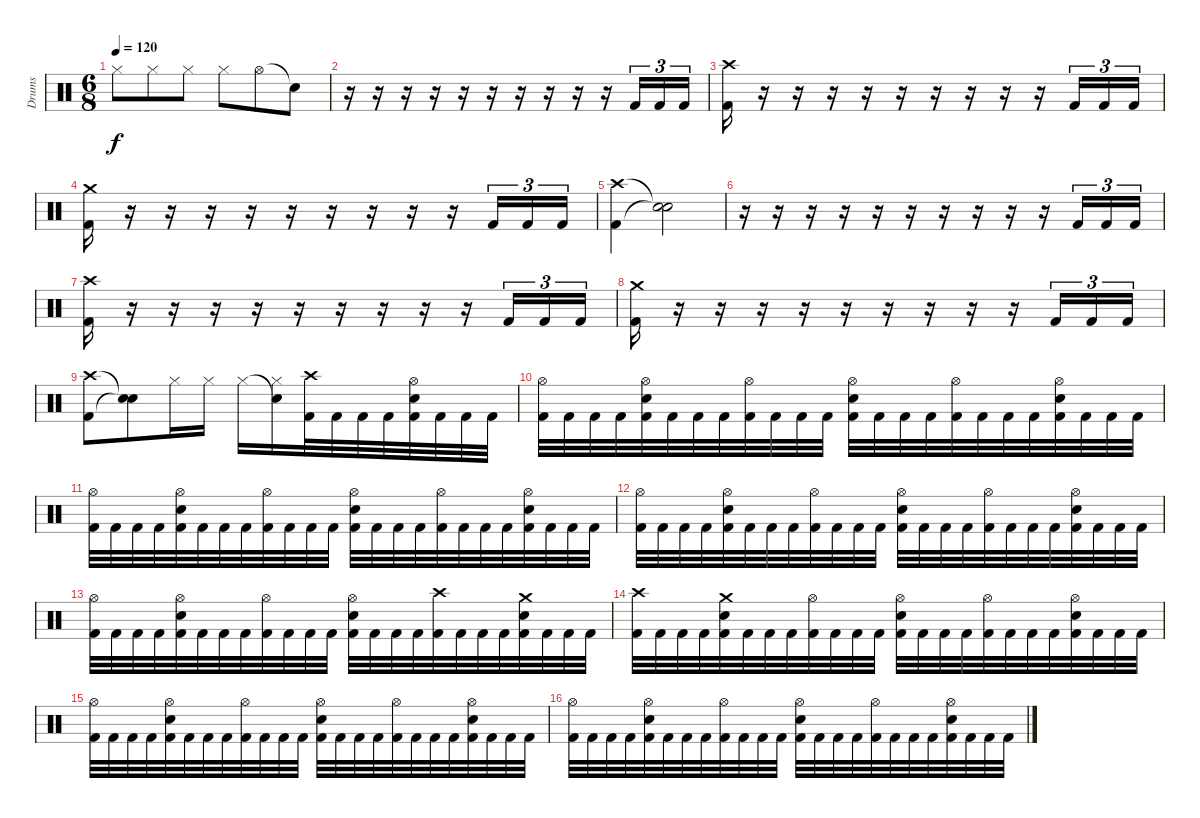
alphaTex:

\track ("Drums" "Drums") {instrument percussion}
\staff {score}
\articulation defaults
\ts (6 8)
\tempo 120
\clef neutral
\ks c "Hi-Hat (closed)".8{dy f} "Hi-Hat (closed)".8 "Hi-Hat (closed)".8 "Hi-Hat (closed)".8 "Hi-Hat (open)".8 "Snare (hit)"{t}.8
|
r.16 r.16 r.16 r.16 r.16 r.16 r.16 r.16 r.16 r.16 "Kick (hit) 2".16{tu (3 2)} "Kick (hit) 2".16{tu (3 2)} "Kick (hit) 2".16{tu (3 2)} |
("Crash high (hit)" "Kick (hit) 2").16 r.16 r.16 r.16 r.16 r.16 r.16 r.16 r.16 r.16 "Kick (hit) 2".16{tu (3 2)} "Kick (hit) 2".16{tu (3 2)} "Kick (hit) 2".16{tu (3 2)} |
("Crash medium (hit)" "Kick (hit) 2").16 r.16 r.16 r.16 r.16 r.16 r.16 r.16 r.16 r.16 "Kick (hit) 2".16{tu (3 2)} "Kick (hit) 2".16{tu (3 2)} "Kick (hit) 2".16{tu (3 2)} |
("Crash high (hit)" "Kick (hit) 2").4 ("Snare (hit)"{t} "Snare (hit)"{t}).2 |
r.16 r.16 r.16 r.16 r.16 r.16 r.16 r.16 r.16 r.16 "Kick (hit) 2".16{tu (3 2)} "Kick (hit) 2".16{tu (3 2)} "Kick (hit) 2".16{tu (3 2)} |
("Crash high (hit)" "Kick (hit) 2").16 r.16 r.16 r.16 r.16 r.16 r.16 r.16 r.16 r.16 "Kick (hit) 2".16{tu (3 2)} "Kick (hit) 2".16{tu (3 2)} "Kick (hit) 2".16{tu (3 2)} |
("Crash medium (hit)" "Kick (hit) 2").16 r.16 r.16 r.16 r.16 r.16 r.16 r.16 r.16 r.16 "Kick (hit) 2".16{tu (3 2)} "Kick (hit) 2".16{tu (3 2)} "Kick (hit) 2".16{tu (3 2)} |
("Crash high (hit)" "Kick (hit) 2").8 ("Snare (hit)"{t} "Snare (hit)"{t}).8 "Hi-Hat (closed)".16 "Hi-Hat (closed)".16 "Hi-Hat (closed)".16 ("Snare (hit)"{t} "Hi-Hat (closed)").16 ("Crash high (hit)" "Kick (hit) 2").32 "Kick (hit) 2".32 "Kick (hit) 2".32 "Kick (hit) 2".32 ("Hi-Hat (open)" "Electric Snare (hit)" "Kick (hit) 2").32 "Kick (hit) 2".32 "Kick (hit) 2".32 "Kick (hit) 2".32 |
("Hi-Hat (open)" "Kick (hit) 2").32 "Kick (hit) 2".32 "Kick (hit) 2".32 "Kick (hit) 2".32 ("Hi-Hat (open)" "Electric Snare (hit)" "Kick (hit) 2").32 "Kick (hit) 2".32 "Kick (hit) 2".32 "Kick (hit) 2".32 ("Hi-Hat (open)" "Kick (hit) 2").32 "Kick (hit) 2".32 "Kick (hit) 2".32 "Kick (hit) 2".32 ("Hi-Hat (open)" "Electric Snare (hit)" "Kick (hit) 2").32 "Kick (hit) 2".32 "Kick (hit) 2".32 "Kick (hit) 2".32 ("Hi-Hat (open)" "Kick (hit) 2").32 "Kick (hit) 2".32 "Kick (hit) 2".32 "Kick (hit) 2".32 ("Hi-Hat (open)" "Electric Snare (hit)" "Kick (hit) 2").32 "Kick (hit) 2".32 "Kick (hit) 2".32 "Kick (hit) 2".32 |
("Hi-Hat (open)" "Kick (hit) 2").32 "Kick (hit) 2".32 "Kick (hit) 2".32 "Kick (hit) 2".32 ("Hi-Hat (open)" "Electric Snare (hit)" "Kick (hit) 2").32 "Kick (hit) 2".32 "Kick (hit) 2".32 "Kick (hit) 2".32 ("Hi-Hat (open)" "Kick (hit) 2").32 "Kick (hit) 2".32 "Kick (hit) 2".32 "Kick (hit) 2".32 ("Hi-Hat (open)" "Electric Snare (hit)" "Kick (hit) 2").32 "Kick (hit) 2".32 "Kick (hit) 2".32 "Kick (hit) 2".32 ("Hi-Hat (open)" "Kick (hit) 2").32 "Kick (hit) 2".32 "Kick (hit) 2".32 "Kick (hit) 2".32 ("Hi-Hat (open)" "Electric Snare (hit)" "Kick (hit) 2").32 "Kick (hit) 2".32 "Kick (hit) 2".32 "Kick (hit) 2".32 |
("Hi-Hat (open)" "Kick (hit) 2").32 "Kick (hit) 2".32 "Kick (hit) 2".32 "Kick (hit) 2".32 ("Hi-Hat (open)" "Electric Snare (hit)" "Kick (hit) 2").32 "Kick (hit) 2".32 "Kick (hit) 2".32 "Kick (hit) 2".32 ("Hi-Hat (open)" "Kick (hit) 2").32 "Kick (hit) 2".32 "Kick (hit) 2".32 "Kick (hit) 2".32 ("Hi-Hat (open)" "Electric Snare (hit)" "Kick (hit) 2").32 "Kick (hit) 2".32 "Kick (hit) 2".32 "Kick (hit) 2".32 ("Hi-Hat (open)" "Kick (hit) 2").32 "Kick (hit) 2".32 "Kick (hit) 2".32 "Kick (hit) 2".32 ("Hi-Hat (open)" "Electric Snare (hit)" "Kick (hit) 2").32 "Kick (hit) 2".32 "Kick (hit) 2".32 "Kick (hit) 2".32 |
("Hi-Hat (open)" "Kick (hit) 2").32 "Kick (hit) 2".32 "Kick (hit) 2".32 "Kick (hit) 2".32 ("Hi-Hat (open)" "Electric Snare (hit)" "Kick (hit) 2").32 "Kick (hit) 2".32 "Kick (hit) 2".32 "Kick (hit) 2".32 ("Hi-Hat (open)" "Kick (hit) 2").32 "Kick (hit) 2".32 "Kick (hit) 2".32 "Kick (hit) 2".32 ("Hi-Hat (open)" "Electric Snare (hit)" "Kick (hit) 2").32 "Kick (hit) 2".32 "Kick (hit) 2".32 "Kick (hit) 2".32 ("Crash high (hit)" "Kick (hit) 2").32 "Kick (hit) 2".32 "Kick (hit) 2".32 "Kick (hit) 2".32 ("Crash medium (hit)" "Electric Snare (hit)" "Kick (hit) 2").32 "Kick (hit) 2".32 "Kick (hit) 2".32 "Kick (hit) 2".32 |
("Crash high (hit)" "Kick (hit) 2").32 "Kick (hit) 2".32 "Kick (hit) 2".32 "Kick (hit) 2".32 ("Crash medium (hit)" "Electric Snare (hit)" "Kick (hit) 2").32 "Kick (hit) 2".32 "Kick (hit) 2".32 "Kick (hit) 2".32 ("Hi-Hat (open)" "Kick (hit) 2").32 "Kick (hit) 2".32 "Kick (hit) 2".32 "Kick (hit) 2".32 ("Hi-Hat (open)" "Electric Snare (hit)" "Kick (hit) 2").32 "Kick (hit) 2".32 "Kick (hit) 2".32 "Kick (hit) 2".32 ("Hi-Hat (open)" "Kick (hit) 2").32 "Kick (hit) 2".32 "Kick (hit) 2".32 "Kick (hit) 2".32 ("Hi-Hat (open)" "Electric Snare (hit)" "Kick (hit) 2").32 "Kick (hit) 2".32 "Kick (hit) 2".32 "Kick (hit) 2".32 |
("Hi-Hat (open)" "Kick (hit) 2").32 "Kick (hit) 2".32 "Kick (hit) 2".32 "Kick (hit) 2".32 ("Hi-Hat (open)" "Electric Snare (hit)" "Kick (hit) 2").32 "Kick (hit) 2".32 "Kick (hit) 2".32 "Kick (hit) 2".32 ("Hi-Hat (open)" "Kick (hit) 2").32 "Kick (hit) 2".32 "Kick (hit) 2".32 "Kick (hit) 2".32 ("Hi-Hat (open)" "Electric Snare (hit)" "Kick (hit) 2").32 "Kick (hit) 2".32 "Kick (hit) 2".32 "Kick (hit) 2".32 ("Hi-Hat (open)" "Kick (hit) 2").32 "Kick (hit) 2".32 "Kick (hit) 2".32 "Kick (hit) 2".32 ("Hi-Hat (open)" "Electric Snare (hit)" "Kick (hit) 2").32 "Kick (hit) 2".32 "Kick (hit) 2".32 "Kick (hit) 2".32 |
("Hi-Hat (open)" "Kick (hit) 2").32 "Kick (hit) 2".32 "Kick (hit) 2".32 "Kick (hit) 2".32 ("Hi-Hat (open)" "Electric Snare (hit)" "Kick (hit) 2").32 "Kick (hit) 2".32 "Kick (hit) 2".32 "Kick (hit) 2".32 ("Hi-Hat (open)" "Kick (hit) 2").32 "Kick (hit) 2".32 "Kick (hit) 2".32 "Kick (hit) 2".32 ("Hi-Hat (open)" "Electric Snare (hit)" "Kick (hit) 2").32 "Kick (hit) 2".32 "Kick (hit) 2".32 "Kick (hit) 2".32 ("Hi-Hat (open)" "Kick (hit) 2").32 "Kick (hit) 2".32 "Kick (hit) 2".32 "Kick (hit) 2".32 ("Hi-Hat (open)" "Electric Snare (hit)" "Kick (hit) 2").32 "Kick (hit) 2".32 "Kick (hit) 2".32 "Kick (hit) 2".32
